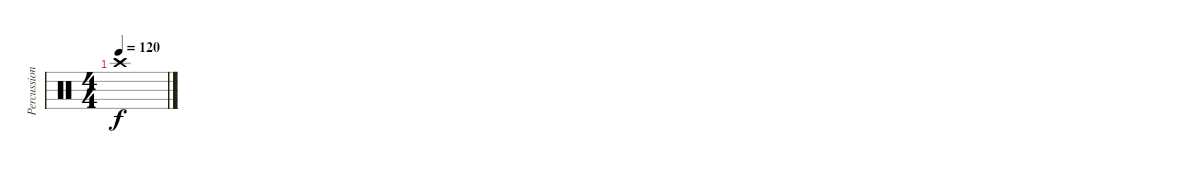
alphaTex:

\track ("Percussion" "Percussion") {instrument percussion}
\staff {score}
\articulation defaults
\ts (4 4)
\tempo 120
\clef neutral
\ks c "Crash high (hit)".1{dy f}
